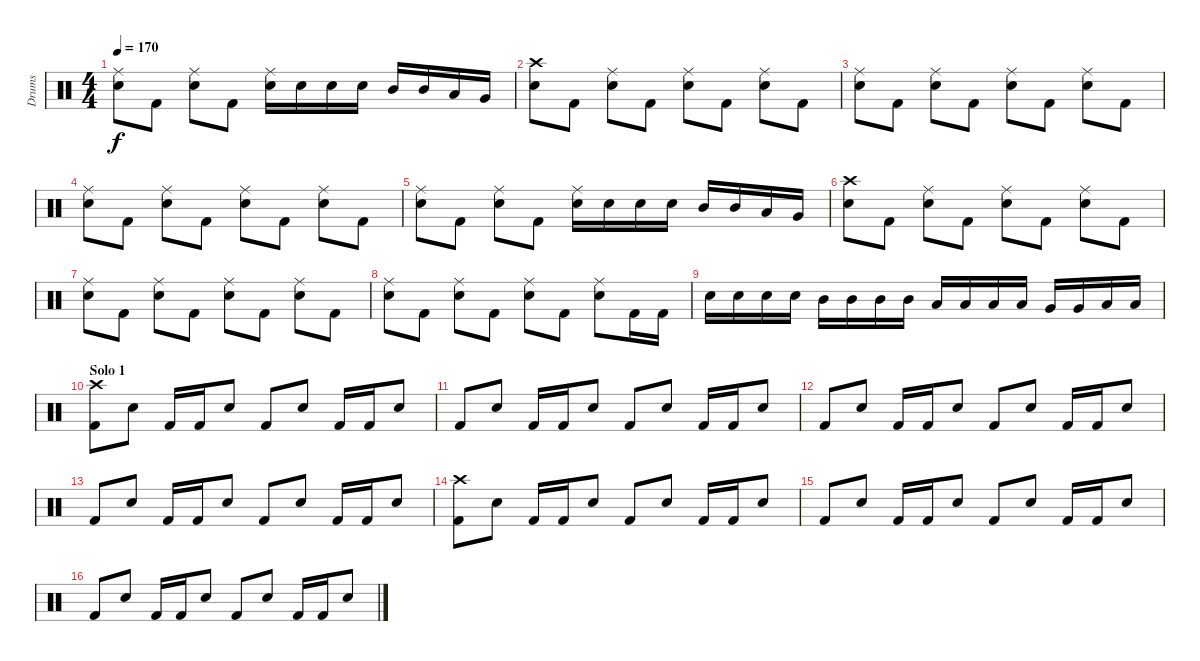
\track ("Drums" "Drums") {instrument percussion}
\staff {score}
\articulation defaults
\ts (4 4)
\tempo 170
\clef neutral
\ks c
("Ride (middle)" "Electric Snare (hit)").8{dy f} "Kick (hit) 2".8 ("Ride (middle)" "Electric Snare (hit)").8 "Kick (hit) 2".8 ("Ride (middle)" "Electric Snare (hit)").16 "Electric Snare (hit)".16 "Electric Snare (hit)".16 "Electric Snare (hit)".16 "Mid Tom (hit)".16 "Mid Tom (hit)".16 "Low Tom (hit)".16 "Very Low Tom (hit)".16 |
("Crash high (hit)" "Electric Snare (hit)").8 "Kick (hit) 2".8 ("Ride (middle)" "Electric Snare (hit)").8 "Kick (hit) 2".8 ("Ride (middle)" "Electric Snare (hit)").8 "Kick (hit) 2".8 ("Ride (middle)" "Electric Snare (hit)").8 "Kick (hit) 2".8 |
("Ride (middle)" "Electric Snare (hit)").8 "Kick (hit) 2".8 ("Ride (middle)" "Electric Snare (hit)").8 "Kick (hit) 2".8 ("Ride (middle)" "Electric Snare (hit)").8 "Kick (hit) 2".8 ("Ride (middle)" "Electric Snare (hit)").8 "Kick (hit) 2".8 |
("Ride (middle)" "Electric Snare (hit)").8 "Kick (hit) 2".8 ("Ride (middle)" "Electric Snare (hit)").8 "Kick (hit) 2".8 ("Ride (middle)" "Electric Snare (hit)").8 "Kick (hit) 2".8 ("Ride (middle)" "Electric Snare (hit)").8 "Kick (hit) 2".8 |
("Ride (middle)" "Electric Snare (hit)").8 "Kick (hit) 2".8 ("Ride (middle)" "Electric Snare (hit)").8 "Kick (hit) 2".8 ("Ride (middle)" "Electric Snare (hit)").16 "Electric Snare (hit)".16 "Electric Snare (hit)".16 "Electric Snare (hit)".16 "Mid Tom (hit)".16 "Mid Tom (hit)".16 "Low Tom (hit)".16 "Very Low Tom (hit)".16 |
("Crash high (hit)" "Electric Snare (hit)").8 "Kick (hit) 2".8 ("Ride (middle)" "Electric Snare (hit)").8 "Kick (hit) 2".8 ("Ride (middle)" "Electric Snare (hit)").8 "Kick (hit) 2".8 ("Ride (middle)" "Electric Snare (hit)").8 "Kick (hit) 2".8 |
("Ride (middle)" "Electric Snare (hit)").8 "Kick (hit) 2".8 ("Ride (middle)" "Electric Snare (hit)").8 "Kick (hit) 2".8 ("Ride (middle)" "Electric Snare (hit)").8 "Kick (hit) 2".8 ("Ride (middle)" "Electric Snare (hit)").8 "Kick (hit) 2".8 |
("Ride (middle)" "Electric Snare (hit)").8 "Kick (hit) 2".8 ("Ride (middle)" "Electric Snare (hit)").8 "Kick (hit) 2".8 ("Ride (middle)" "Electric Snare (hit)").8 "Kick (hit) 2".8 ("Ride (middle)" "Electric Snare (hit)").8 "Kick (hit) 2".16 "Kick (hit) 2".16 |
"Electric Snare (hit)".16 "Electric Snare (hit)".16 "Electric Snare (hit)".16 "Electric Snare (hit)".16 "Mid Tom (hit)".16 "Mid Tom (hit)".16 "Mid Tom (hit)".16 "Mid Tom (hit)".16 "Low Tom (hit)".16 "Low Tom (hit)".16 "Low Tom (hit)".16 "Low Tom (hit)".16 "Very Low Tom (hit)".16 "Very Low Tom (hit)".16 "Low Floor Tom (hit)".16 "Low Floor Tom (hit)".16 |
\section ("" "Solo 1")
("Crash high (hit)" "Kick (hit) 2").8 "Snare (hit) 2".8 "Kick (hit) 2".16 "Kick (hit) 2".16 "Snare (hit) 2".8 "Kick (hit) 2".8 "Snare (hit) 2".8 "Kick (hit) 2".16 "Kick (hit) 2".16 "Snare (hit) 2".8 |
"Kick (hit) 2".8 "Snare (hit) 2".8 "Kick (hit) 2".16 "Kick (hit) 2".16 "Snare (hit) 2".8 "Kick (hit) 2".8 "Snare (hit) 2".8 "Kick (hit) 2".16 "Kick (hit) 2".16 "Snare (hit) 2".8 |
"Kick (hit) 2".8 "Snare (hit) 2".8 "Kick (hit) 2".16 "Kick (hit) 2".16 "Snare (hit) 2".8 "Kick (hit) 2".8 "Snare (hit) 2".8 "Kick (hit) 2".16 "Kick (hit) 2".16 "Snare (hit) 2".8 |
"Kick (hit) 2".8 "Snare (hit) 2".8 "Kick (hit) 2".16 "Kick (hit) 2".16 "Snare (hit) 2".8 "Kick (hit) 2".8 "Snare (hit) 2".8 "Kick (hit) 2".16 "Kick (hit) 2".16 "Snare (hit) 2".8 |
("Crash high (hit)" "Kick (hit) 2").8 "Snare (hit) 2".8 "Kick (hit) 2".16 "Kick (hit) 2".16 "Snare (hit) 2".8 "Kick (hit) 2".8 "Snare (hit) 2".8 "Kick (hit) 2".16 "Kick (hit) 2".16 "Snare (hit) 2".8 |
"Kick (hit) 2".8 "Snare (hit) 2".8 "Kick (hit) 2".16 "Kick (hit) 2".16 "Snare (hit) 2".8 "Kick (hit) 2".8 "Snare (hit) 2".8 "Kick (hit) 2".16 "Kick (hit) 2".16 "Snare (hit) 2".8 |
"Kick (hit) 2".8 "Snare (hit) 2".8 "Kick (hit) 2".16 "Kick (hit) 2".16 "Snare (hit) 2".8 "Kick (hit) 2".8 "Snare (hit) 2".8 "Kick (hit) 2".16 "Kick (hit) 2".16 "Snare (hit) 2".8
